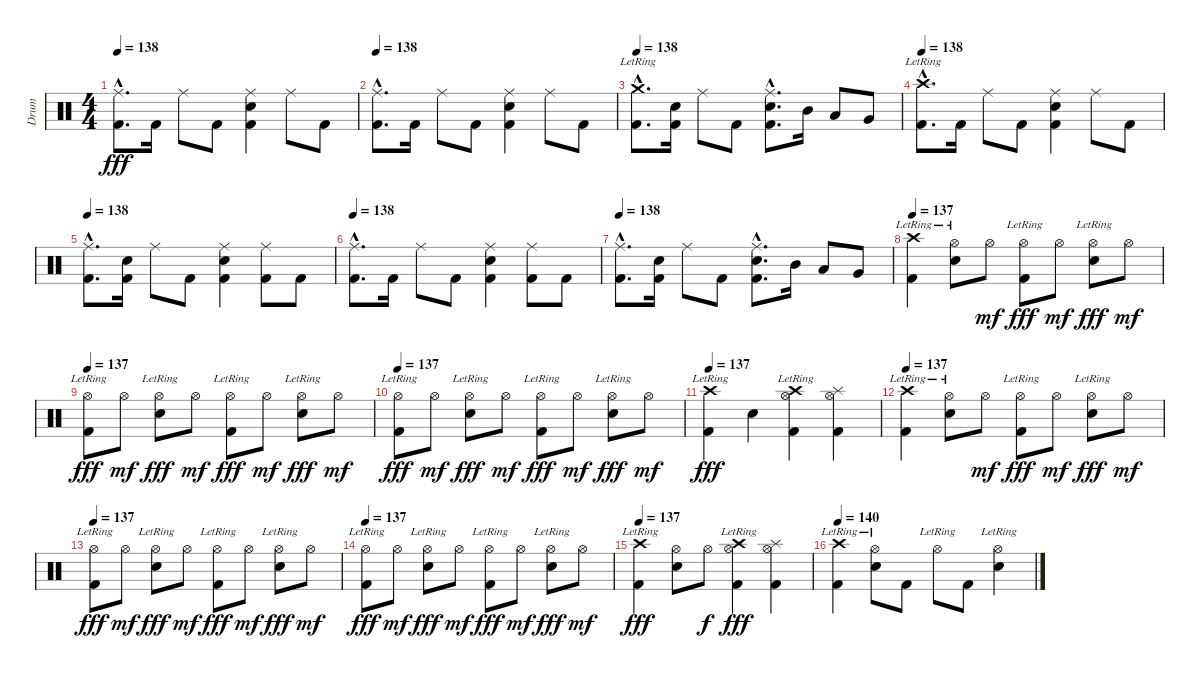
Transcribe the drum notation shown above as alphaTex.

\track ("Drum" "Drum") {instrument percussion}
\staff {score}
\articulation defaults
\ts (4 4)
\tempo 138
\clef neutral
\ks c
("Ride (middle)"{hac} "Kick (hit) 2"{hac}).8{d dy fff} "Kick (hit) 2".16 "Ride (middle)".8 "Kick (hit) 2".8 ("Ride (middle)" "Electric Snare (hit)" "Kick (hit) 2").4 "Ride (middle)".8 "Kick (hit) 2".8 |
\tempo 138
("Ride (middle)"{hac} "Kick (hit) 2"{hac}).8{d} "Kick (hit) 2".16 "Ride (middle)".8 "Kick (hit) 2".8 ("Ride (middle)" "Electric Snare (hit)" "Kick (hit) 2").4 "Ride (middle)".8 "Kick (hit) 2".8 |
\tempo 138
("Crash medium (hit)"{hac lr} "Kick (hit) 2"{hac}).8{d} ("Electric Snare (hit)" "Kick (hit) 2").16 "Ride (middle)".8 "Kick (hit) 2".8 ("Ride (middle)"{hac} "Electric Snare (hit)"{hac} "Kick (hit) 2"{hac}).8{d} "Mid Tom (hit)".16 "Low Tom (hit)".8 "Very Low Tom (hit)".8 |
\tempo 138
("Crash high (hit)"{hac lr} "Kick (hit) 2"{hac}).8{d} "Kick (hit) 2".16 "Ride (middle)".8 "Kick (hit) 2".8 ("Ride (middle)" "Electric Snare (hit)" "Kick (hit) 2").4 "Ride (middle)".8 "Kick (hit) 2".8 |
\tempo 138
("Ride (middle)"{hac} "Kick (hit) 2"{hac}).8{d} ("Electric Snare (hit)" "Kick (hit) 2").16 "Ride (middle)".8 "Kick (hit) 2".8 ("Ride (middle)" "Electric Snare (hit)" "Kick (hit) 2").4 ("Ride (middle)" "Kick (hit) 2").8 "Kick (hit) 2".8 |
\tempo 138
("Ride (middle)"{hac} "Kick (hit) 2"{hac}).8{d} "Kick (hit) 2".16 "Ride (middle)".8 "Kick (hit) 2".8 ("Ride (middle)" "Electric Snare (hit)" "Kick (hit) 2").4 ("Ride (middle)" "Kick (hit) 2").8 "Kick (hit) 2".8 |
\tempo 138
("Ride (middle)"{hac} "Kick (hit) 2"{hac}).8{d} ("Electric Snare (hit)" "Kick (hit) 2").16 "Ride (middle)".8 "Kick (hit) 2".8 ("Ride (middle)"{hac} "Electric Snare (hit)"{hac} "Kick (hit) 2"{hac}).8{d} "Mid Tom (hit)".16 "Low Tom (hit)".8 "Very Low Tom (hit)".8 |
\tempo 137
("Crash high (hit)"{lr} "Kick (hit) 2").4 ("Hi-Hat (open)"{lr} "Electric Snare (hit)").8 "Hi-Hat (open)".8{dy mf} ("Hi-Hat (open)"{lr} "Kick (hit) 2").8{dy fff} "Hi-Hat (open)".8{dy mf} ("Hi-Hat (open)"{lr} "Electric Snare (hit)").8{dy fff} "Hi-Hat (open)".8{dy mf} |
\tempo 137
("Hi-Hat (open)"{lr} "Kick (hit) 2").8{dy fff} "Hi-Hat (open)".8{dy mf} ("Hi-Hat (open)"{lr} "Electric Snare (hit)").8{dy fff} "Hi-Hat (open)".8{dy mf} ("Hi-Hat (open)"{lr} "Kick (hit) 2").8{dy fff} "Hi-Hat (open)".8{dy mf} ("Hi-Hat (open)"{lr} "Electric Snare (hit)").8{dy fff} "Hi-Hat (open)".8{dy mf} |
\tempo 137
("Hi-Hat (open)"{lr} "Kick (hit) 2").8{dy fff} "Hi-Hat (open)".8{dy mf} ("Hi-Hat (open)"{lr} "Electric Snare (hit)").8{dy fff} "Hi-Hat (open)".8{dy mf} ("Hi-Hat (open)"{lr} "Kick (hit) 2").8{dy fff} "Hi-Hat (open)".8{dy mf} ("Hi-Hat (open)"{lr} "Electric Snare (hit)").8{dy fff} "Hi-Hat (open)".8{dy mf} |
\tempo 137
("Crash high (hit)"{lr} "Kick (hit) 2").4{dy fff} "Electric Snare (hit)".4 ("Crash high (hit)"{lr} "Hi-Hat (open)" "Kick (hit) 2").4 ("Splash (hit)" "Hi-Hat (open)" "Kick (hit) 2").4 |
\tempo 137
("Crash high (hit)"{lr} "Kick (hit) 2").4 ("Hi-Hat (open)"{lr} "Electric Snare (hit)").8 "Hi-Hat (open)".8{dy mf} ("Hi-Hat (open)"{lr} "Kick (hit) 2").8{dy fff} "Hi-Hat (open)".8{dy mf} ("Hi-Hat (open)"{lr} "Electric Snare (hit)").8{dy fff} "Hi-Hat (open)".8{dy mf} |
\tempo 137
("Hi-Hat (open)"{lr} "Kick (hit) 2").8{dy fff} "Hi-Hat (open)".8{dy mf} ("Hi-Hat (open)"{lr} "Electric Snare (hit)").8{dy fff} "Hi-Hat (open)".8{dy mf} ("Hi-Hat (open)"{lr} "Kick (hit) 2").8{dy fff} "Hi-Hat (open)".8{dy mf} ("Hi-Hat (open)"{lr} "Electric Snare (hit)").8{dy fff} "Hi-Hat (open)".8{dy mf} |
\tempo 137
("Hi-Hat (open)"{lr} "Kick (hit) 2").8{dy fff} "Hi-Hat (open)".8{dy mf} ("Hi-Hat (open)"{lr} "Electric Snare (hit)").8{dy fff} "Hi-Hat (open)".8{dy mf} ("Hi-Hat (open)"{lr} "Kick (hit) 2").8{dy fff} "Hi-Hat (open)".8{dy mf} ("Hi-Hat (open)"{lr} "Electric Snare (hit)").8{dy fff} "Hi-Hat (open)".8{dy mf} |
\tempo 137
("Crash high (hit)"{lr} "Kick (hit) 2").4{dy fff} ("Hi-Hat (open)" "Electric Snare (hit)").8 "Hi-Hat (open)".8{dy f} ("Crash high (hit)"{lr} "Hi-Hat (open)" "Kick (hit) 2").4{dy fff} ("Splash (hit)" "Hi-Hat (open)" "Kick (hit) 2").4 |
\tempo 140
("Crash high (hit)"{lr} "Kick (hit) 2").4 ("Hi-Hat (open)"{lr} "Electric Snare (hit)").8 "Kick (hit) 2".8 "Hi-Hat (open)"{lr}.8 "Kick (hit) 2".8 ("Hi-Hat (open)"{lr} "Electric Snare (hit)").4
